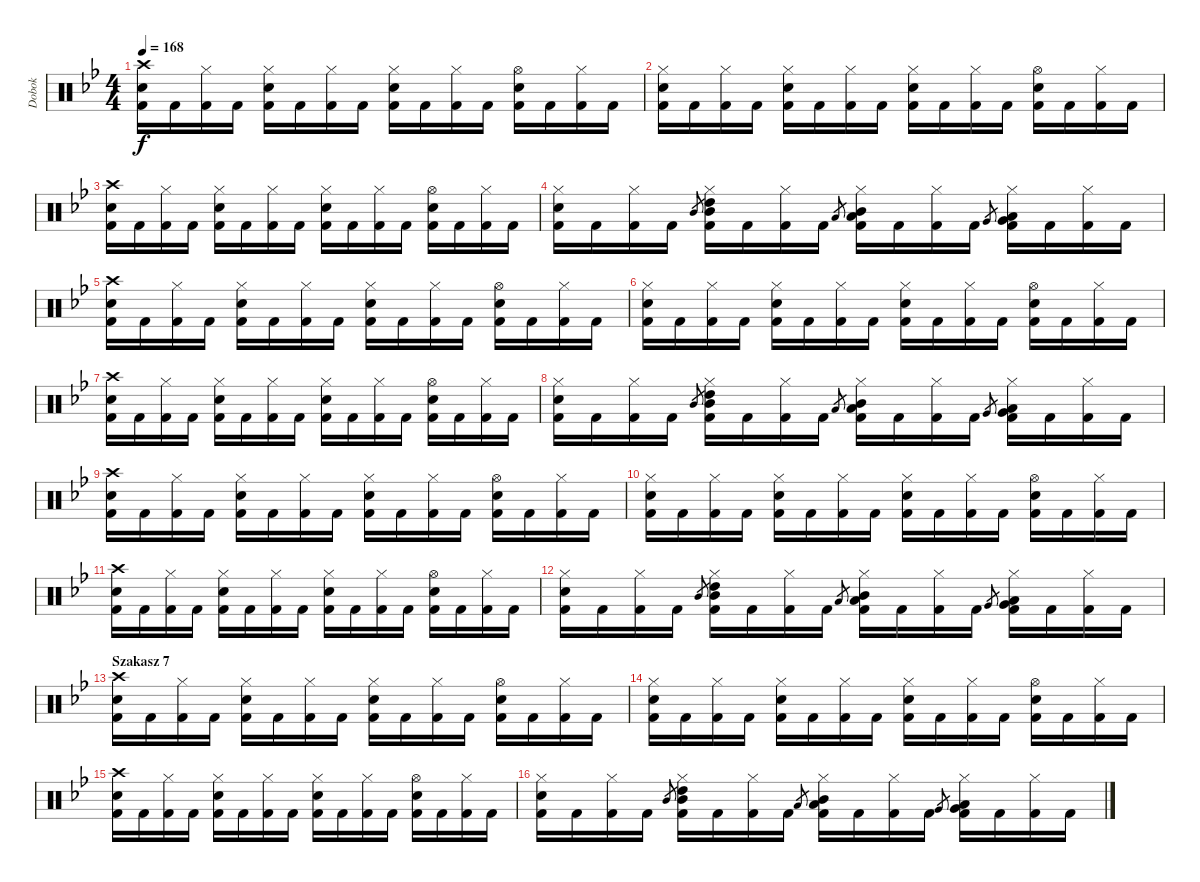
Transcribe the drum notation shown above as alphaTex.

\track ("Dobok" "Dobok") {instrument percussion}
\staff {score}
\articulation defaults
\ts (4 4)
\tempo 168
\clef neutral
\ks gminor
("Crash high (hit)" "Snare (hit) 2" "Kick (hit) 2").16{dy f} "Kick (hit) 2".16 ("Hi-Hat (closed)" "Kick (hit) 2").16 "Kick (hit) 2".16 ("Hi-Hat (closed)" "Snare (hit) 2" "Kick (hit) 2").16 "Kick (hit) 2".16 ("Hi-Hat (closed)" "Kick (hit) 2").16 "Kick (hit) 2".16 ("Hi-Hat (closed)" "Snare (hit) 2" "Kick (hit) 2").16 "Kick (hit) 2".16 ("Hi-Hat (closed)" "Kick (hit) 2").16 "Kick (hit) 2".16 ("Hi-Hat (open)" "Snare (hit) 2" "Kick (hit) 2").16 "Kick (hit) 2".16 ("Hi-Hat (closed)" "Kick (hit) 2").16 "Kick (hit) 2".16 |
("Hi-Hat (closed)" "Snare (hit) 2" "Kick (hit) 2").16 "Kick (hit) 2".16 ("Hi-Hat (closed)" "Kick (hit) 2").16 "Kick (hit) 2".16 ("Hi-Hat (closed)" "Snare (hit) 2" "Kick (hit) 2").16 "Kick (hit) 2".16 ("Hi-Hat (closed)" "Kick (hit) 2").16 "Kick (hit) 2".16 ("Hi-Hat (closed)" "Snare (hit) 2" "Kick (hit) 2").16 "Kick (hit) 2".16 ("Hi-Hat (closed)" "Kick (hit) 2").16 "Kick (hit) 2".16 ("Hi-Hat (open)" "Snare (hit) 2" "Kick (hit) 2").16 "Kick (hit) 2".16 ("Hi-Hat (closed)" "Kick (hit) 2").16 "Kick (hit) 2".16 |
("Crash high (hit)" "Snare (hit) 2" "Kick (hit) 2").16 "Kick (hit) 2".16 ("Hi-Hat (closed)" "Kick (hit) 2").16 "Kick (hit) 2".16 ("Hi-Hat (closed)" "Snare (hit) 2" "Kick (hit) 2").16 "Kick (hit) 2".16 ("Hi-Hat (closed)" "Kick (hit) 2").16 "Kick (hit) 2".16 ("Hi-Hat (closed)" "Snare (hit) 2" "Kick (hit) 2").16 "Kick (hit) 2".16 ("Hi-Hat (closed)" "Kick (hit) 2").16 "Kick (hit) 2".16 ("Hi-Hat (open)" "Snare (hit) 2" "Kick (hit) 2").16 "Kick (hit) 2".16 ("Hi-Hat (closed)" "Kick (hit) 2").16 "Kick (hit) 2".16 |
("Hi-Hat (closed)" "Snare (hit) 2" "Kick (hit) 2").16 "Kick (hit) 2".16 ("Hi-Hat (closed)" "Kick (hit) 2").16 "Kick (hit) 2".16 "Mid Tom (hit)".8{gr} ("Hi-Hat (closed)" "High Tom (hit)" "Mid Tom (hit)" "Kick (hit) 2").16 "Kick (hit) 2".16 ("Hi-Hat (closed)" "Kick (hit) 2").16 "Kick (hit) 2".16 "Low Tom (hit)".8{gr} ("Hi-Hat (closed)" "Mid Tom (hit)" "Low Tom (hit)" "Kick (hit) 2").16 "Kick (hit) 2".16 ("Hi-Hat (closed)" "Kick (hit) 2").16 "Kick (hit) 2".16 "Very Low Tom (hit)".8{gr} ("Hi-Hat (closed)" "Low Tom (hit)" "Very Low Tom (hit)" "Kick (hit) 2").16 "Kick (hit) 2".16 ("Hi-Hat (closed)" "Kick (hit) 2").16 "Kick (hit) 2".16 |
("Crash high (hit)" "Snare (hit) 2" "Kick (hit) 2").16 "Kick (hit) 2".16 ("Hi-Hat (closed)" "Kick (hit) 2").16 "Kick (hit) 2".16 ("Hi-Hat (closed)" "Snare (hit) 2" "Kick (hit) 2").16 "Kick (hit) 2".16 ("Hi-Hat (closed)" "Kick (hit) 2").16 "Kick (hit) 2".16 ("Hi-Hat (closed)" "Snare (hit) 2" "Kick (hit) 2").16 "Kick (hit) 2".16 ("Hi-Hat (closed)" "Kick (hit) 2").16 "Kick (hit) 2".16 ("Hi-Hat (open)" "Snare (hit) 2" "Kick (hit) 2").16 "Kick (hit) 2".16 ("Hi-Hat (closed)" "Kick (hit) 2").16 "Kick (hit) 2".16 |
("Hi-Hat (closed)" "Snare (hit) 2" "Kick (hit) 2").16 "Kick (hit) 2".16 ("Hi-Hat (closed)" "Kick (hit) 2").16 "Kick (hit) 2".16 ("Hi-Hat (closed)" "Snare (hit) 2" "Kick (hit) 2").16 "Kick (hit) 2".16 ("Hi-Hat (closed)" "Kick (hit) 2").16 "Kick (hit) 2".16 ("Hi-Hat (closed)" "Snare (hit) 2" "Kick (hit) 2").16 "Kick (hit) 2".16 ("Hi-Hat (closed)" "Kick (hit) 2").16 "Kick (hit) 2".16 ("Hi-Hat (open)" "Snare (hit) 2" "Kick (hit) 2").16 "Kick (hit) 2".16 ("Hi-Hat (closed)" "Kick (hit) 2").16 "Kick (hit) 2".16 |
("Crash high (hit)" "Snare (hit) 2" "Kick (hit) 2").16 "Kick (hit) 2".16 ("Hi-Hat (closed)" "Kick (hit) 2").16 "Kick (hit) 2".16 ("Hi-Hat (closed)" "Snare (hit) 2" "Kick (hit) 2").16 "Kick (hit) 2".16 ("Hi-Hat (closed)" "Kick (hit) 2").16 "Kick (hit) 2".16 ("Hi-Hat (closed)" "Snare (hit) 2" "Kick (hit) 2").16 "Kick (hit) 2".16 ("Hi-Hat (closed)" "Kick (hit) 2").16 "Kick (hit) 2".16 ("Hi-Hat (open)" "Snare (hit) 2" "Kick (hit) 2").16 "Kick (hit) 2".16 ("Hi-Hat (closed)" "Kick (hit) 2").16 "Kick (hit) 2".16 |
("Hi-Hat (closed)" "Snare (hit) 2" "Kick (hit) 2").16 "Kick (hit) 2".16 ("Hi-Hat (closed)" "Kick (hit) 2").16 "Kick (hit) 2".16 "Mid Tom (hit)".8{gr} ("Hi-Hat (closed)" "High Tom (hit)" "Mid Tom (hit)" "Kick (hit) 2").16 "Kick (hit) 2".16 ("Hi-Hat (closed)" "Kick (hit) 2").16 "Kick (hit) 2".16 "Low Tom (hit)".8{gr} ("Hi-Hat (closed)" "Mid Tom (hit)" "Low Tom (hit)" "Kick (hit) 2").16 "Kick (hit) 2".16 ("Hi-Hat (closed)" "Kick (hit) 2").16 "Kick (hit) 2".16 "Very Low Tom (hit)".8{gr} ("Hi-Hat (closed)" "Low Tom (hit)" "Very Low Tom (hit)" "Kick (hit) 2").16 "Kick (hit) 2".16 ("Hi-Hat (closed)" "Kick (hit) 2").16 "Kick (hit) 2".16 |
("Crash high (hit)" "Snare (hit) 2" "Kick (hit) 2").16 "Kick (hit) 2".16 ("Hi-Hat (closed)" "Kick (hit) 2").16 "Kick (hit) 2".16 ("Hi-Hat (closed)" "Snare (hit) 2" "Kick (hit) 2").16 "Kick (hit) 2".16 ("Hi-Hat (closed)" "Kick (hit) 2").16 "Kick (hit) 2".16 ("Hi-Hat (closed)" "Snare (hit) 2" "Kick (hit) 2").16 "Kick (hit) 2".16 ("Hi-Hat (closed)" "Kick (hit) 2").16 "Kick (hit) 2".16 ("Hi-Hat (open)" "Snare (hit) 2" "Kick (hit) 2").16 "Kick (hit) 2".16 ("Hi-Hat (closed)" "Kick (hit) 2").16 "Kick (hit) 2".16 |
("Hi-Hat (closed)" "Snare (hit) 2" "Kick (hit) 2").16 "Kick (hit) 2".16 ("Hi-Hat (closed)" "Kick (hit) 2").16 "Kick (hit) 2".16 ("Hi-Hat (closed)" "Snare (hit) 2" "Kick (hit) 2").16 "Kick (hit) 2".16 ("Hi-Hat (closed)" "Kick (hit) 2").16 "Kick (hit) 2".16 ("Hi-Hat (closed)" "Snare (hit) 2" "Kick (hit) 2").16 "Kick (hit) 2".16 ("Hi-Hat (closed)" "Kick (hit) 2").16 "Kick (hit) 2".16 ("Hi-Hat (open)" "Snare (hit) 2" "Kick (hit) 2").16 "Kick (hit) 2".16 ("Hi-Hat (closed)" "Kick (hit) 2").16 "Kick (hit) 2".16 |
("Crash high (hit)" "Snare (hit) 2" "Kick (hit) 2").16 "Kick (hit) 2".16 ("Hi-Hat (closed)" "Kick (hit) 2").16 "Kick (hit) 2".16 ("Hi-Hat (closed)" "Snare (hit) 2" "Kick (hit) 2").16 "Kick (hit) 2".16 ("Hi-Hat (closed)" "Kick (hit) 2").16 "Kick (hit) 2".16 ("Hi-Hat (closed)" "Snare (hit) 2" "Kick (hit) 2").16 "Kick (hit) 2".16 ("Hi-Hat (closed)" "Kick (hit) 2").16 "Kick (hit) 2".16 ("Hi-Hat (open)" "Snare (hit) 2" "Kick (hit) 2").16 "Kick (hit) 2".16 ("Hi-Hat (closed)" "Kick (hit) 2").16 "Kick (hit) 2".16 |
("Hi-Hat (closed)" "Snare (hit) 2" "Kick (hit) 2").16 "Kick (hit) 2".16 ("Hi-Hat (closed)" "Kick (hit) 2").16 "Kick (hit) 2".16 "Mid Tom (hit)".8{gr} ("Hi-Hat (closed)" "High Tom (hit)" "Mid Tom (hit)" "Kick (hit) 2").16 "Kick (hit) 2".16 ("Hi-Hat (closed)" "Kick (hit) 2").16 "Kick (hit) 2".16 "Low Tom (hit)".8{gr} ("Hi-Hat (closed)" "Mid Tom (hit)" "Low Tom (hit)" "Kick (hit) 2").16 "Kick (hit) 2".16 ("Hi-Hat (closed)" "Kick (hit) 2").16 "Kick (hit) 2".16 "Very Low Tom (hit)".8{gr} ("Hi-Hat (closed)" "Low Tom (hit)" "Very Low Tom (hit)" "Kick (hit) 2").16 "Kick (hit) 2".16 ("Hi-Hat (closed)" "Kick (hit) 2").16 "Kick (hit) 2".16 |
\section ("" "Szakasz 7")
("Crash high (hit)" "Snare (hit) 2" "Kick (hit) 2").16 "Kick (hit) 2".16 ("Hi-Hat (closed)" "Kick (hit) 2").16 "Kick (hit) 2".16 ("Hi-Hat (closed)" "Snare (hit) 2" "Kick (hit) 2").16 "Kick (hit) 2".16 ("Hi-Hat (closed)" "Kick (hit) 2").16 "Kick (hit) 2".16 ("Hi-Hat (closed)" "Snare (hit) 2" "Kick (hit) 2").16 "Kick (hit) 2".16 ("Hi-Hat (closed)" "Kick (hit) 2").16 "Kick (hit) 2".16 ("Hi-Hat (open)" "Snare (hit) 2" "Kick (hit) 2").16 "Kick (hit) 2".16 ("Hi-Hat (closed)" "Kick (hit) 2").16 "Kick (hit) 2".16 |
("Hi-Hat (closed)" "Snare (hit) 2" "Kick (hit) 2").16 "Kick (hit) 2".16 ("Hi-Hat (closed)" "Kick (hit) 2").16 "Kick (hit) 2".16 ("Hi-Hat (closed)" "Snare (hit) 2" "Kick (hit) 2").16 "Kick (hit) 2".16 ("Hi-Hat (closed)" "Kick (hit) 2").16 "Kick (hit) 2".16 ("Hi-Hat (closed)" "Snare (hit) 2" "Kick (hit) 2").16 "Kick (hit) 2".16 ("Hi-Hat (closed)" "Kick (hit) 2").16 "Kick (hit) 2".16 ("Hi-Hat (open)" "Snare (hit) 2" "Kick (hit) 2").16 "Kick (hit) 2".16 ("Hi-Hat (closed)" "Kick (hit) 2").16 "Kick (hit) 2".16 |
("Crash high (hit)" "Snare (hit) 2" "Kick (hit) 2").16 "Kick (hit) 2".16 ("Hi-Hat (closed)" "Kick (hit) 2").16 "Kick (hit) 2".16 ("Hi-Hat (closed)" "Snare (hit) 2" "Kick (hit) 2").16 "Kick (hit) 2".16 ("Hi-Hat (closed)" "Kick (hit) 2").16 "Kick (hit) 2".16 ("Hi-Hat (closed)" "Snare (hit) 2" "Kick (hit) 2").16 "Kick (hit) 2".16 ("Hi-Hat (closed)" "Kick (hit) 2").16 "Kick (hit) 2".16 ("Hi-Hat (open)" "Snare (hit) 2" "Kick (hit) 2").16 "Kick (hit) 2".16 ("Hi-Hat (closed)" "Kick (hit) 2").16 "Kick (hit) 2".16 |
("Hi-Hat (closed)" "Snare (hit) 2" "Kick (hit) 2").16 "Kick (hit) 2".16 ("Hi-Hat (closed)" "Kick (hit) 2").16 "Kick (hit) 2".16 "Mid Tom (hit)".8{gr} ("Hi-Hat (closed)" "High Tom (hit)" "Mid Tom (hit)" "Kick (hit) 2").16 "Kick (hit) 2".16 ("Hi-Hat (closed)" "Kick (hit) 2").16 "Kick (hit) 2".16 "Low Tom (hit)".8{gr} ("Hi-Hat (closed)" "Mid Tom (hit)" "Low Tom (hit)" "Kick (hit) 2").16 "Kick (hit) 2".16 ("Hi-Hat (closed)" "Kick (hit) 2").16 "Kick (hit) 2".16 "Very Low Tom (hit)".8{gr} ("Hi-Hat (closed)" "Low Tom (hit)" "Very Low Tom (hit)" "Kick (hit) 2").16 "Kick (hit) 2".16 ("Hi-Hat (closed)" "Kick (hit) 2").16 "Kick (hit) 2".16
